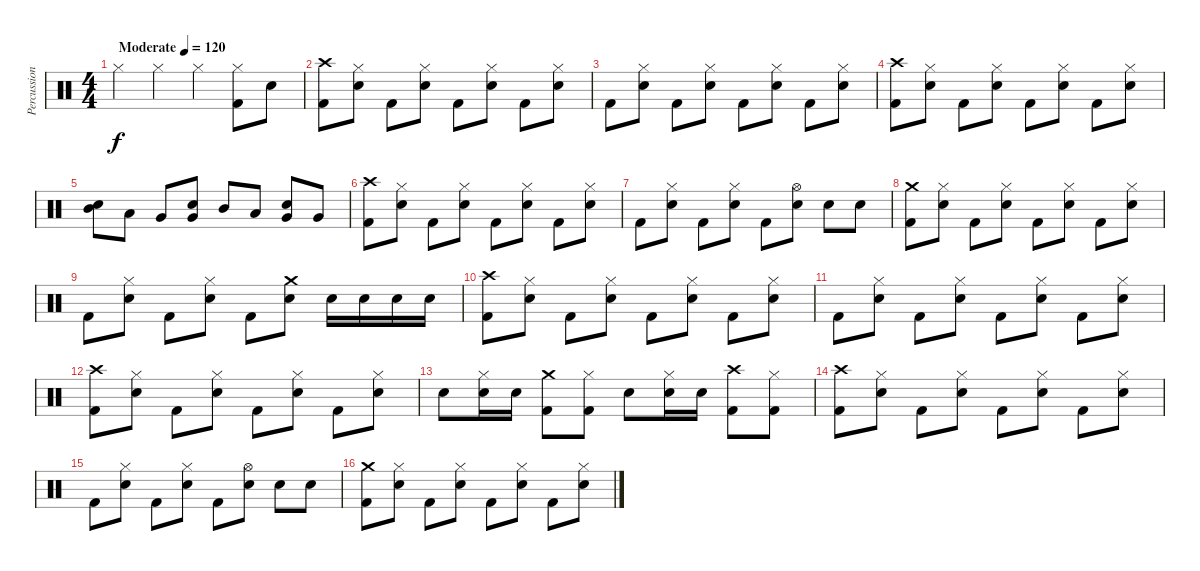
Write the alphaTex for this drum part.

\track ("Percussion" "Percussion") {instrument percussion}
\staff {score}
\articulation defaults
\ts (4 4)
\tempo (120 "Moderate")
\clef neutral
\ks c "Hi-Hat (closed)".4{dy f} "Hi-Hat (closed)".4 "Hi-Hat (closed)".4
("Hi-Hat (closed)" "Kick (hit) 2").8 "Snare (hit) 2".8 |
("Crash high (hit)" "Kick (hit) 2").8 ("Hi-Hat (closed)" "Snare (hit) 2").8 "Kick (hit) 2".8 ("Hi-Hat (closed)" "Snare (hit) 2").8 "Kick (hit) 2".8 ("Hi-Hat (closed)" "Snare (hit) 2").8 "Kick (hit) 2".8 ("Hi-Hat (closed)" "Snare (hit) 2").8 |
"Kick (hit) 2".8 ("Hi-Hat (closed)" "Snare (hit) 2").8 "Kick (hit) 2".8 ("Hi-Hat (closed)" "Snare (hit) 2").8 "Kick (hit) 2".8 ("Hi-Hat (closed)" "Snare (hit) 2").8 "Kick (hit) 2".8 ("Hi-Hat (closed)" "Snare (hit) 2").8 |
("Crash high (hit)" "Kick (hit) 2").8 ("Hi-Hat (closed)" "Snare (hit) 2").8 "Kick (hit) 2".8 ("Hi-Hat (closed)" "Snare (hit) 2").8 "Kick (hit) 2".8 ("Hi-Hat (closed)" "Snare (hit) 2").8 "Kick (hit) 2".8 ("Hi-Hat (closed)" "Snare (hit) 2").8 |
("Mid Tom (hit)" "Snare (hit) 2").8 "Low Tom (hit)".8 "Very Low Tom (hit)".8 ("Very Low Tom (hit)" "Snare (hit) 2").8 "Mid Tom (hit)".8 "Low Tom (hit)".8 ("Very Low Tom (hit)" "Snare (hit) 2").8 "Very Low Tom (hit)".8 |
("Crash high (hit)" "Kick (hit) 2").8 ("Hi-Hat (closed)" "Snare (hit) 2").8 "Kick (hit) 2".8 ("Hi-Hat (closed)" "Snare (hit) 2").8 "Kick (hit) 2".8 ("Hi-Hat (closed)" "Snare (hit) 2").8 "Kick (hit) 2".8 ("Hi-Hat (closed)" "Snare (hit) 2").8 |
"Kick (hit) 2".8 ("Hi-Hat (closed)" "Snare (hit) 2").8 "Kick (hit) 2".8 ("Hi-Hat (closed)" "Snare (hit) 2").8 "Kick (hit) 2".8 ("Hi-Hat (open)" "Snare (hit) 2").8 "Snare (hit) 2".8 "Snare (hit) 2".8 |
("Crash medium (hit)" "Kick (hit) 2").8 ("Hi-Hat (closed)" "Snare (hit) 2").8 "Kick (hit) 2".8 ("Hi-Hat (closed)" "Snare (hit) 2").8 "Kick (hit) 2".8 ("Hi-Hat (closed)" "Snare (hit) 2").8 "Kick (hit) 2".8 ("Hi-Hat (closed)" "Snare (hit) 2").8 |
"Kick (hit) 2".8 ("Hi-Hat (closed)" "Snare (hit) 2").8 "Kick (hit) 2".8 ("Hi-Hat (closed)" "Snare (hit) 2").8 "Kick (hit) 2".8 ("Crash medium (hit)" "Snare (hit) 2").8 "Snare (hit) 2".16 "Snare (hit) 2".16 "Snare (hit) 2".16 "Snare (hit) 2".16 |
("Crash high (hit)" "Kick (hit) 2").8 ("Hi-Hat (closed)" "Snare (hit) 2").8 "Kick (hit) 2".8 ("Hi-Hat (closed)" "Snare (hit) 2").8 "Kick (hit) 2".8 ("Hi-Hat (closed)" "Snare (hit) 2").8 "Kick (hit) 2".8 ("Hi-Hat (closed)" "Snare (hit) 2").8 |
"Kick (hit) 2".8 ("Hi-Hat (closed)" "Snare (hit) 2").8 "Kick (hit) 2".8 ("Hi-Hat (closed)" "Snare (hit) 2").8 "Kick (hit) 2".8 ("Hi-Hat (closed)" "Snare (hit) 2").8 "Kick (hit) 2".8 ("Hi-Hat (closed)" "Snare (hit) 2").8 |
("Crash high (hit)" "Kick (hit) 2").8 ("Hi-Hat (closed)" "Snare (hit) 2").8 "Kick (hit) 2".8 ("Hi-Hat (closed)" "Snare (hit) 2").8 "Kick (hit) 2".8 ("Hi-Hat (closed)" "Snare (hit) 2").8 "Kick (hit) 2".8 ("Hi-Hat (closed)" "Snare (hit) 2").8 |
"Snare (hit) 2".8 ("Hi-Hat (closed)" "Snare (hit) 2").16 "Snare (hit) 2".16 ("Crash medium (hit)" "Kick (hit) 2").8 ("Hi-Hat (closed)" "Kick (hit) 2").8 "Snare (hit) 2".8 ("Hi-Hat (closed)" "Snare (hit) 2").16 "Snare (hit) 2".16 ("Crash high (hit)" "Kick (hit) 2").8 ("Hi-Hat (closed)" "Kick (hit) 2").8 |
("Crash high (hit)" "Kick (hit) 2").8 ("Hi-Hat (closed)" "Snare (hit) 2").8 "Kick (hit) 2".8 ("Hi-Hat (closed)" "Snare (hit) 2").8 "Kick (hit) 2".8 ("Hi-Hat (closed)" "Snare (hit) 2").8 "Kick (hit) 2".8 ("Hi-Hat (closed)" "Snare (hit) 2").8 |
"Kick (hit) 2".8 ("Hi-Hat (closed)" "Snare (hit) 2").8 "Kick (hit) 2".8 ("Hi-Hat (closed)" "Snare (hit) 2").8 "Kick (hit) 2".8 ("Hi-Hat (open)" "Snare (hit) 2").8 "Snare (hit) 2".8 "Snare (hit) 2".8 |
("Crash medium (hit)" "Kick (hit) 2").8 ("Hi-Hat (closed)" "Snare (hit) 2").8 "Kick (hit) 2".8 ("Hi-Hat (closed)" "Snare (hit) 2").8 "Kick (hit) 2".8 ("Hi-Hat (closed)" "Snare (hit) 2").8 "Kick (hit) 2".8 ("Hi-Hat (closed)" "Snare (hit) 2").8
